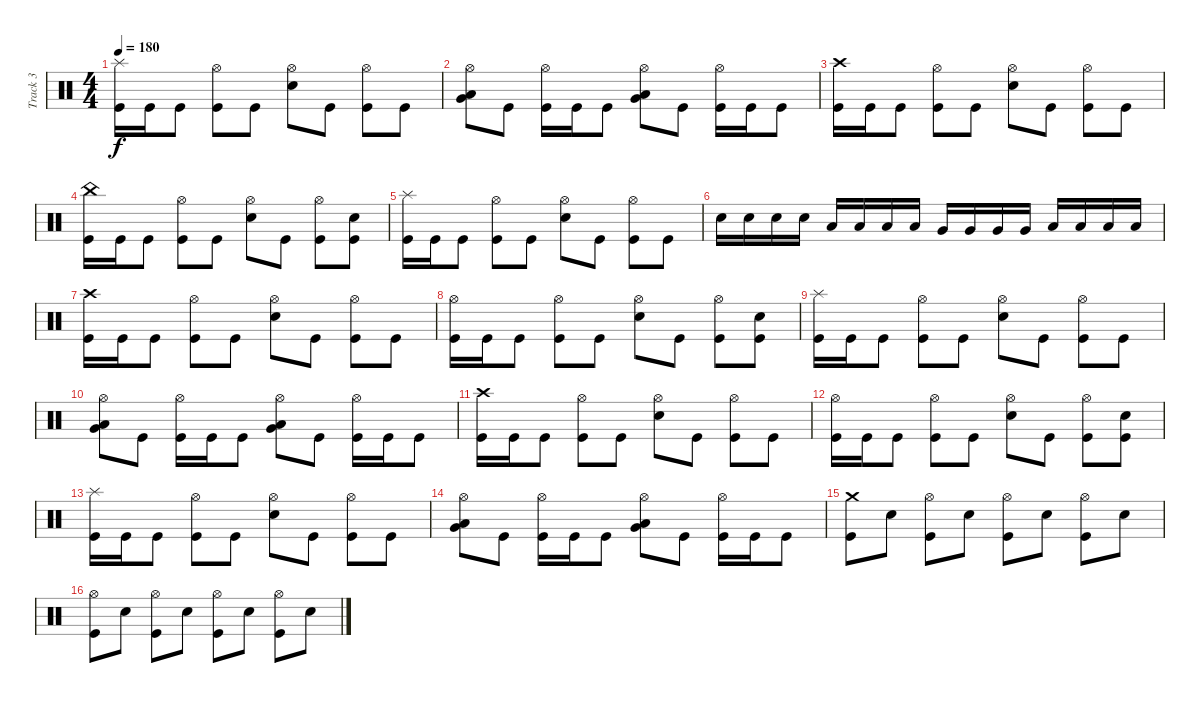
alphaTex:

\track ("Track 3" "Track 3") {instrument percussion}
\staff {score}
\articulation defaults
\ts (4 4)
\tempo 180
\clef neutral
\ks c
("Splash (hit)" "Kick (hit)").16{dy f} "Kick (hit)".16 "Kick (hit)".8 ("Hi-Hat (open)" "Kick (hit)").8 "Kick (hit)".8 ("Hi-Hat (open)" "Electric Snare (hit)").8 "Kick (hit)".8 ("Hi-Hat (open)" "Kick (hit)").8 "Kick (hit)".8 |
("Hi-Hat (open)" "Very Low Tom (hit)" "Low Floor Tom (hit)").8 "Kick (hit)".8 ("Hi-Hat (open)" "Kick (hit)").16 "Kick (hit)".16 "Kick (hit)".8 ("Hi-Hat (open)" "Very Low Tom (hit)" "Low Tom (hit)").8 "Kick (hit)".8 ("Hi-Hat (open)" "Kick (hit)").16 "Kick (hit)".16 "Kick (hit)".8 |
("Crash high (hit)" "Kick (hit)").16 "Kick (hit)".16 "Kick (hit)".8 ("Hi-Hat (open)" "Kick (hit)").8 "Kick (hit)".8 ("Hi-Hat (open)" "Electric Snare (hit)").8 "Kick (hit)".8 ("Hi-Hat (open)" "Kick (hit)").8 "Kick (hit)".8 |
("China (hit)" "Kick (hit)").16 "Kick (hit)".16 "Kick (hit)".8 ("Hi-Hat (open)" "Kick (hit)").8 "Kick (hit)".8 ("Hi-Hat (open)" "Electric Snare (hit)").8 "Kick (hit)".8 ("Hi-Hat (open)" "Kick (hit)").8 ("Electric Snare (hit)" "Kick (hit)").8 |
("Splash (hit)" "Kick (hit)").16 "Kick (hit)".16 "Kick (hit)".8 ("Hi-Hat (open)" "Kick (hit)").8 "Kick (hit)".8 ("Hi-Hat (open)" "Electric Snare (hit)").8 "Kick (hit)".8 ("Hi-Hat (open)" "Kick (hit)").8 "Kick (hit)".8 |
"Electric Snare (hit)".16 "Electric Snare (hit)".16 "Electric Snare (hit)".16 "Electric Snare (hit)".16 "Low Tom (hit)".16 "Low Tom (hit)".16 "Low Tom (hit)".16 "Low Tom (hit)".16 "Very Low Tom (hit)".16 "Very Low Tom (hit)".16 "Very Low Tom (hit)".16 "Very Low Tom (hit)".16 "Low Floor Tom (hit)".16 "Low Floor Tom (hit)".16 "Low Floor Tom (hit)".16 "Low Floor Tom (hit)".16 |
("Crash high (hit)" "Kick (hit)").16 "Kick (hit)".16 "Kick (hit)".8 ("Hi-Hat (open)" "Kick (hit)").8 "Kick (hit)".8 ("Hi-Hat (open)" "Electric Snare (hit)").8 "Kick (hit)".8 ("Hi-Hat (open)" "Kick (hit)").8 "Kick (hit)".8 |
("Hi-Hat (open)" "Kick (hit)").16 "Kick (hit)".16 "Kick (hit)".8 ("Hi-Hat (open)" "Kick (hit)").8 "Kick (hit)".8 ("Hi-Hat (open)" "Electric Snare (hit)").8 "Kick (hit)".8 ("Hi-Hat (open)" "Kick (hit)").8 ("Electric Snare (hit)" "Kick (hit)").8 |
("Splash (hit)" "Kick (hit)").16 "Kick (hit)".16 "Kick (hit)".8 ("Hi-Hat (open)" "Kick (hit)").8 "Kick (hit)".8 ("Hi-Hat (open)" "Electric Snare (hit)").8 "Kick (hit)".8 ("Hi-Hat (open)" "Kick (hit)").8 "Kick (hit)".8 |
("Hi-Hat (open)" "Very Low Tom (hit)" "Low Floor Tom (hit)").8 "Kick (hit)".8 ("Hi-Hat (open)" "Kick (hit)").16 "Kick (hit)".16 "Kick (hit)".8 ("Hi-Hat (open)" "Very Low Tom (hit)" "Low Tom (hit)").8 "Kick (hit)".8 ("Hi-Hat (open)" "Kick (hit)").16 "Kick (hit)".16 "Kick (hit)".8 |
("Crash high (hit)" "Kick (hit)").16 "Kick (hit)".16 "Kick (hit)".8 ("Hi-Hat (open)" "Kick (hit)").8 "Kick (hit)".8 ("Hi-Hat (open)" "Electric Snare (hit)").8 "Kick (hit)".8 ("Hi-Hat (open)" "Kick (hit)").8 "Kick (hit)".8 |
("Hi-Hat (open)" "Kick (hit)").16 "Kick (hit)".16 "Kick (hit)".8 ("Hi-Hat (open)" "Kick (hit)").8 "Kick (hit)".8 ("Hi-Hat (open)" "Electric Snare (hit)").8 "Kick (hit)".8 ("Hi-Hat (open)" "Kick (hit)").8 ("Electric Snare (hit)" "Kick (hit)").8 |
("Splash (hit)" "Kick (hit)").16 "Kick (hit)".16 "Kick (hit)".8 ("Hi-Hat (open)" "Kick (hit)").8 "Kick (hit)".8 ("Hi-Hat (open)" "Electric Snare (hit)").8 "Kick (hit)".8 ("Hi-Hat (open)" "Kick (hit)").8 "Kick (hit)".8 |
("Hi-Hat (open)" "Very Low Tom (hit)" "Low Floor Tom (hit)").8 "Kick (hit)".8 ("Hi-Hat (open)" "Kick (hit)").16 "Kick (hit)".16 "Kick (hit)".8 ("Hi-Hat (open)" "Very Low Tom (hit)" "Low Tom (hit)").8 "Kick (hit)".8 ("Hi-Hat (open)" "Kick (hit)").16 "Kick (hit)".16 "Kick (hit)".8 |
("Crash medium (hit)" "Kick (hit)").8 "Electric Snare (hit)".8 ("Hi-Hat (open)" "Kick (hit)").8 "Electric Snare (hit)".8 ("Hi-Hat (open)" "Kick (hit)").8 "Electric Snare (hit)".8 ("Hi-Hat (open)" "Kick (hit)").8 "Electric Snare (hit)".8 |
("Hi-Hat (open)" "Kick (hit)").8 "Electric Snare (hit)".8 ("Hi-Hat (open)" "Kick (hit)").8 "Electric Snare (hit)".8 ("Hi-Hat (open)" "Kick (hit)").8 "Electric Snare (hit)".8 ("Hi-Hat (open)" "Kick (hit)").8 "Electric Snare (hit)".8
